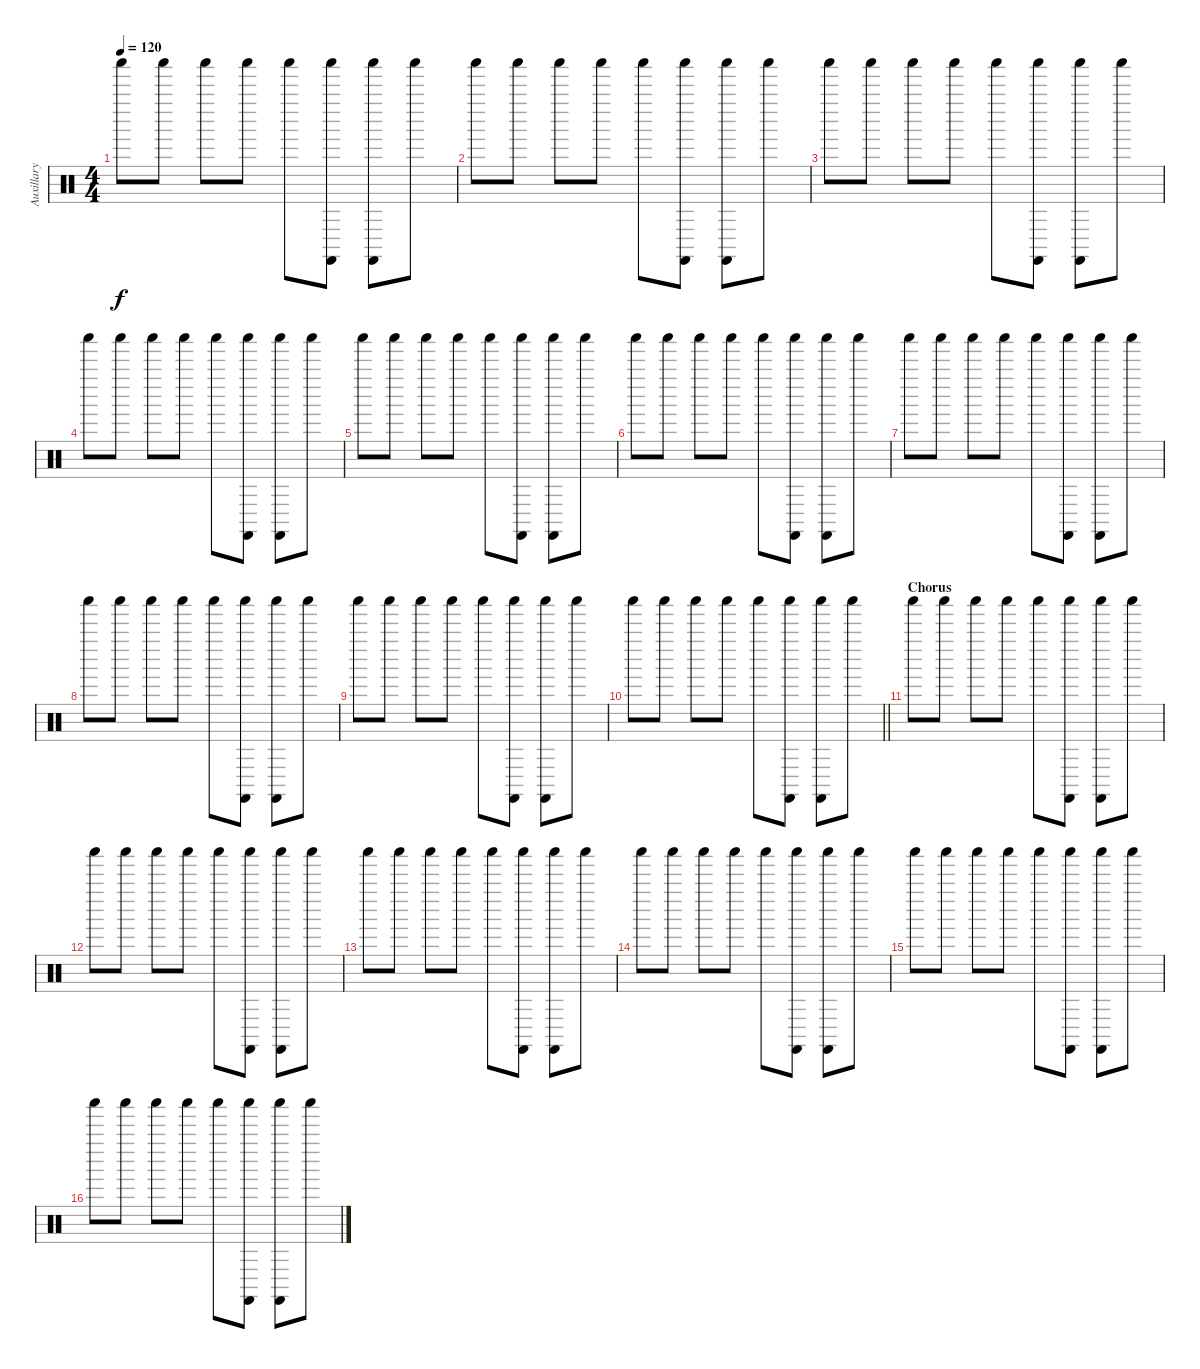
\track ("Auxillary" "Auxillary") {instrument percussion}
\staff {score}
\articulation defaults
\ts (4 4)
\tempo 120
\clef neutral
\ks c "Shaker (hit)".8{dy f} "Shaker (hit)".8 "Shaker (hit)".8 "Shaker (hit)".8 "Shaker (hit)".8
("Shaker (hit)" "Castanets (hit)").8 ("Shaker (hit)" "Castanets (hit)").8 "Shaker (hit)".8 |
"Shaker (hit)".8 "Shaker (hit)".8 "Shaker (hit)".8 "Shaker (hit)".8 "Shaker (hit)".8 ("Shaker (hit)" "Castanets (hit)").8 ("Shaker (hit)" "Castanets (hit)").8 "Shaker (hit)".8 |
"Shaker (hit)".8 "Shaker (hit)".8 "Shaker (hit)".8 "Shaker (hit)".8 "Shaker (hit)".8 ("Shaker (hit)" "Castanets (hit)").8 ("Shaker (hit)" "Castanets (hit)").8 "Shaker (hit)".8 |
"Shaker (hit)".8 "Shaker (hit)".8 "Shaker (hit)".8 "Shaker (hit)".8 "Shaker (hit)".8 ("Shaker (hit)" "Castanets (hit)").8 ("Shaker (hit)" "Castanets (hit)").8 "Shaker (hit)".8 |
"Shaker (hit)".8 "Shaker (hit)".8 "Shaker (hit)".8 "Shaker (hit)".8 "Shaker (hit)".8 ("Shaker (hit)" "Castanets (hit)").8 ("Shaker (hit)" "Castanets (hit)").8 "Shaker (hit)".8 |
"Shaker (hit)".8 "Shaker (hit)".8 "Shaker (hit)".8 "Shaker (hit)".8 "Shaker (hit)".8 ("Shaker (hit)" "Castanets (hit)").8 ("Shaker (hit)" "Castanets (hit)").8 "Shaker (hit)".8 |
"Shaker (hit)".8 "Shaker (hit)".8 "Shaker (hit)".8 "Shaker (hit)".8 "Shaker (hit)".8 ("Shaker (hit)" "Castanets (hit)").8 ("Shaker (hit)" "Castanets (hit)").8 "Shaker (hit)".8 |
"Shaker (hit)".8 "Shaker (hit)".8 "Shaker (hit)".8 "Shaker (hit)".8 "Shaker (hit)".8 ("Shaker (hit)" "Castanets (hit)").8 ("Shaker (hit)" "Castanets (hit)").8 "Shaker (hit)".8 |
"Shaker (hit)".8 "Shaker (hit)".8 "Shaker (hit)".8 "Shaker (hit)".8 "Shaker (hit)".8 ("Shaker (hit)" "Castanets (hit)").8 ("Shaker (hit)" "Castanets (hit)").8 "Shaker (hit)".8 |
\barLineRight lightlight "Shaker (hit)".8 "Shaker (hit)".8 "Shaker (hit)".8 "Shaker (hit)".8 "Shaker (hit)".8
("Shaker (hit)" "Castanets (hit)").8 ("Shaker (hit)" "Castanets (hit)").8 "Shaker (hit)".8 |
\section ("" "Chorus")
"Shaker (hit)".8 "Shaker (hit)".8 "Shaker (hit)".8 "Shaker (hit)".8 "Shaker (hit)".8 ("Shaker (hit)" "Castanets (hit)").8 ("Shaker (hit)" "Castanets (hit)").8 "Shaker (hit)".8 |
"Shaker (hit)".8 "Shaker (hit)".8 "Shaker (hit)".8 "Shaker (hit)".8 "Shaker (hit)".8 ("Shaker (hit)" "Castanets (hit)").8 ("Shaker (hit)" "Castanets (hit)").8 "Shaker (hit)".8 |
"Shaker (hit)".8 "Shaker (hit)".8 "Shaker (hit)".8 "Shaker (hit)".8 "Shaker (hit)".8 ("Shaker (hit)" "Castanets (hit)").8 ("Shaker (hit)" "Castanets (hit)").8 "Shaker (hit)".8 |
"Shaker (hit)".8 "Shaker (hit)".8 "Shaker (hit)".8 "Shaker (hit)".8 "Shaker (hit)".8 ("Shaker (hit)" "Castanets (hit)").8 ("Shaker (hit)" "Castanets (hit)").8 "Shaker (hit)".8 |
"Shaker (hit)".8 "Shaker (hit)".8 "Shaker (hit)".8 "Shaker (hit)".8 "Shaker (hit)".8 ("Shaker (hit)" "Castanets (hit)").8 ("Shaker (hit)" "Castanets (hit)").8 "Shaker (hit)".8 |
"Shaker (hit)".8 "Shaker (hit)".8 "Shaker (hit)".8 "Shaker (hit)".8 "Shaker (hit)".8 ("Shaker (hit)" "Castanets (hit)").8 ("Shaker (hit)" "Castanets (hit)").8 "Shaker (hit)".8
